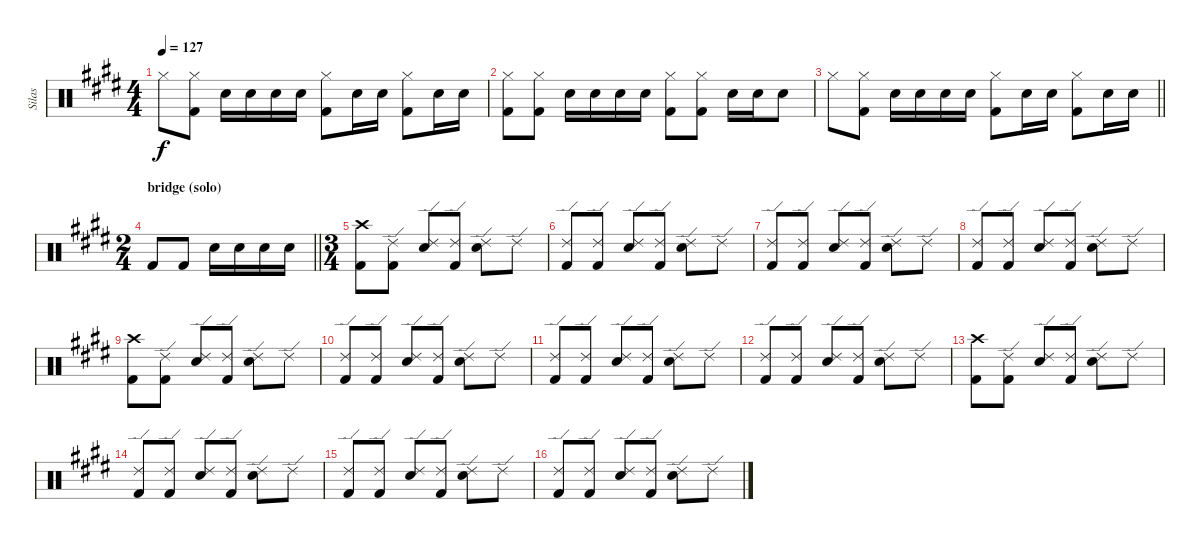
\track ("Silas" "Silas") {instrument percussion}
\staff {score}
\articulation defaults
\ts (4 4)
\tempo 127
\clef neutral
\ks e "Hi-Hat (closed)".8{dy f}
("Hi-Hat (closed)" "Kick (hit) 2").8 "Snare (hit) 2".16 "Snare (hit) 2".16 "Snare (hit) 2".16 "Snare (hit) 2".16 ("Hi-Hat (closed)" "Kick (hit) 2").8 "Snare (hit) 2".16 "Snare (hit) 2".16 ("Hi-Hat (closed)" "Kick (hit) 2").8 "Snare (hit) 2".16 "Snare (hit) 2".16 |
("Hi-Hat (closed)" "Kick (hit) 2").8 ("Hi-Hat (closed)" "Kick (hit) 2").8 "Snare (hit) 2".16 "Snare (hit) 2".16 "Snare (hit) 2".16 "Snare (hit) 2".16 ("Hi-Hat (closed)" "Kick (hit) 2").8 ("Hi-Hat (closed)" "Kick (hit) 2").8 "Snare (hit) 2".16 "Snare (hit) 2".16 "Snare (hit) 2".8 |
\barLineRight lightlight "Hi-Hat (closed)".8
("Hi-Hat (closed)" "Kick (hit) 2").8 "Snare (hit) 2".16 "Snare (hit) 2".16 "Snare (hit) 2".16 "Snare (hit) 2".16 ("Hi-Hat (closed)" "Kick (hit) 2").8 "Snare (hit) 2".16 "Snare (hit) 2".16 ("Hi-Hat (closed)" "Kick (hit) 2").8 "Snare (hit) 2".16 "Snare (hit) 2".16 |
\ts (2 4)
\section ("" "bridge (solo)")
\barLineRight lightlight "Kick (hit) 2".8 "Kick (hit) 2".8 "Snare (hit) 2".16 "Snare (hit) 2".16 "Snare (hit) 2".16 "Snare (hit) 2".16
|
\ts (3 4)
("Crash high (hit)" "Kick (hit) 2").8 ("Ride (edge) 2" "Kick (hit) 2").8 ("Ride (edge) 2" "Snare (hit) 2").8 ("Ride (edge) 2" "Kick (hit) 2").8 ("Ride (edge) 2" "Snare (hit) 2").8 "Ride (edge) 2".8 |
("Ride (edge) 2" "Kick (hit) 2").8 ("Ride (edge) 2" "Kick (hit) 2").8 ("Ride (edge) 2" "Snare (hit) 2").8 ("Ride (edge) 2" "Kick (hit) 2").8 ("Ride (edge) 2" "Snare (hit) 2").8 "Ride (edge) 2".8 |
("Ride (edge) 2" "Kick (hit) 2").8 ("Ride (edge) 2" "Kick (hit) 2").8 ("Ride (edge) 2" "Snare (hit) 2").8 ("Ride (edge) 2" "Kick (hit) 2").8 ("Ride (edge) 2" "Snare (hit) 2").8 "Ride (edge) 2".8 |
("Ride (edge) 2" "Kick (hit) 2").8 ("Ride (edge) 2" "Kick (hit) 2").8 ("Ride (edge) 2" "Snare (hit) 2").8 ("Ride (edge) 2" "Kick (hit) 2").8 ("Ride (edge) 2" "Snare (hit) 2").8 "Ride (edge) 2".8 |
("Crash high (hit)" "Kick (hit) 2").8 ("Ride (edge) 2" "Kick (hit) 2").8 ("Ride (edge) 2" "Snare (hit) 2").8 ("Ride (edge) 2" "Kick (hit) 2").8 ("Ride (edge) 2" "Snare (hit) 2").8 "Ride (edge) 2".8 |
("Ride (edge) 2" "Kick (hit) 2").8 ("Ride (edge) 2" "Kick (hit) 2").8 ("Ride (edge) 2" "Snare (hit) 2").8 ("Ride (edge) 2" "Kick (hit) 2").8 ("Ride (edge) 2" "Snare (hit) 2").8 "Ride (edge) 2".8 |
("Ride (edge) 2" "Kick (hit) 2").8 ("Ride (edge) 2" "Kick (hit) 2").8 ("Ride (edge) 2" "Snare (hit) 2").8 ("Ride (edge) 2" "Kick (hit) 2").8 ("Ride (edge) 2" "Snare (hit) 2").8 "Ride (edge) 2".8 |
("Ride (edge) 2" "Kick (hit) 2").8 ("Ride (edge) 2" "Kick (hit) 2").8 ("Ride (edge) 2" "Snare (hit) 2").8 ("Ride (edge) 2" "Kick (hit) 2").8 ("Ride (edge) 2" "Snare (hit) 2").8 "Ride (edge) 2".8 |
("Crash high (hit)" "Kick (hit) 2").8 ("Ride (edge) 2" "Kick (hit) 2").8 ("Ride (edge) 2" "Snare (hit) 2").8 ("Ride (edge) 2" "Kick (hit) 2").8 ("Ride (edge) 2" "Snare (hit) 2").8 "Ride (edge) 2".8 |
("Ride (edge) 2" "Kick (hit) 2").8 ("Ride (edge) 2" "Kick (hit) 2").8 ("Ride (edge) 2" "Snare (hit) 2").8 ("Ride (edge) 2" "Kick (hit) 2").8 ("Ride (edge) 2" "Snare (hit) 2").8 "Ride (edge) 2".8 |
("Ride (edge) 2" "Kick (hit) 2").8 ("Ride (edge) 2" "Kick (hit) 2").8 ("Ride (edge) 2" "Snare (hit) 2").8 ("Ride (edge) 2" "Kick (hit) 2").8 ("Ride (edge) 2" "Snare (hit) 2").8 "Ride (edge) 2".8 |
("Ride (edge) 2" "Kick (hit) 2").8 ("Ride (edge) 2" "Kick (hit) 2").8 ("Ride (edge) 2" "Snare (hit) 2").8 ("Ride (edge) 2" "Kick (hit) 2").8 ("Ride (edge) 2" "Snare (hit) 2").8 "Ride (edge) 2".8
